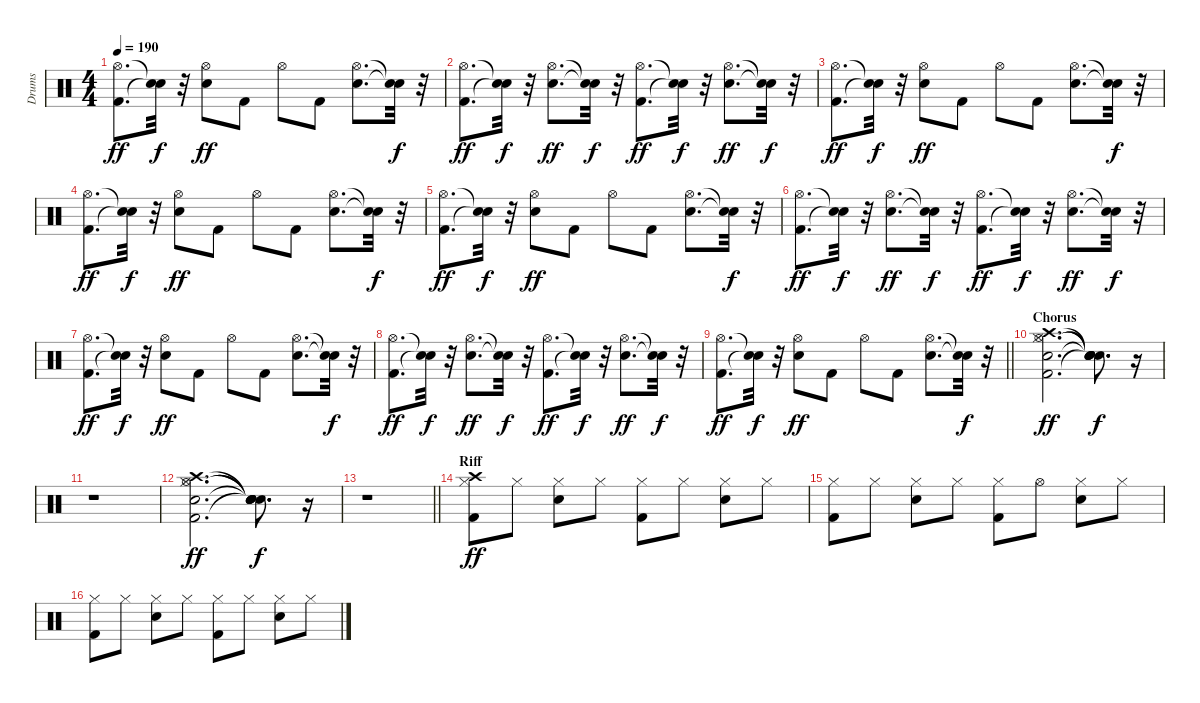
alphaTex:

\track ("Drums" "Drums") {instrument percussion}
\staff {score}
\articulation defaults
\ts (4 4)
\tempo 190
\clef neutral
\ks c
("Kick (hit) 2" "Hi-Hat (open)").8{d dy ff} ("Snare (hit)"{t} "Snare (hit)"{t}).32{dy f} r.32 ("Snare (hit) 2" "Hi-Hat (open)").8{dy ff} "Kick (hit) 2".8 "Hi-Hat (open)".8 "Kick (hit) 2".8 ("Snare (hit) 2" "Hi-Hat (open)").8{d} ("Snare (hit)"{t} "Snare (hit)"{t}).32{dy f} r.32 |
("Kick (hit) 2" "Hi-Hat (open)").8{d dy ff} ("Snare (hit)"{t} "Snare (hit)"{t}).32{dy f} r.32 ("Snare (hit) 2" "Hi-Hat (open)").8{d dy ff} ("Snare (hit)"{t} "Snare (hit)"{t}).32{dy f} r.32 ("Kick (hit) 2" "Hi-Hat (open)").8{d dy ff} ("Snare (hit)"{t} "Snare (hit)"{t}).32{dy f} r.32 ("Snare (hit) 2" "Hi-Hat (open)").8{d dy ff} ("Snare (hit)"{t} "Snare (hit)"{t}).32{dy f} r.32 |
("Kick (hit) 2" "Hi-Hat (open)").8{d dy ff} ("Snare (hit)"{t} "Snare (hit)"{t}).32{dy f} r.32 ("Snare (hit) 2" "Hi-Hat (open)").8{dy ff} "Kick (hit) 2".8 "Hi-Hat (open)".8 "Kick (hit) 2".8 ("Snare (hit) 2" "Hi-Hat (open)").8{d} ("Snare (hit)"{t} "Snare (hit)"{t}).32{dy f} r.32 |
("Kick (hit) 2" "Hi-Hat (open)").8{d dy ff} ("Snare (hit)"{t} "Snare (hit)"{t}).32{dy f} r.32 ("Snare (hit) 2" "Hi-Hat (open)").8{dy ff} "Kick (hit) 2".8 "Hi-Hat (open)".8 "Kick (hit) 2".8 ("Snare (hit) 2" "Hi-Hat (open)").8{d} ("Snare (hit)"{t} "Snare (hit)"{t}).32{dy f} r.32 |
("Kick (hit) 2" "Hi-Hat (open)").8{d dy ff} ("Snare (hit)"{t} "Snare (hit)"{t}).32{dy f} r.32 ("Snare (hit) 2" "Hi-Hat (open)").8{dy ff} "Kick (hit) 2".8 "Hi-Hat (open)".8 "Kick (hit) 2".8 ("Snare (hit) 2" "Hi-Hat (open)").8{d} ("Snare (hit)"{t} "Snare (hit)"{t}).32{dy f} r.32 |
("Kick (hit) 2" "Hi-Hat (open)").8{d dy ff} ("Snare (hit)"{t} "Snare (hit)"{t}).32{dy f} r.32 ("Snare (hit) 2" "Hi-Hat (open)").8{d dy ff} ("Snare (hit)"{t} "Snare (hit)"{t}).32{dy f} r.32 ("Kick (hit) 2" "Hi-Hat (open)").8{d dy ff} ("Snare (hit)"{t} "Snare (hit)"{t}).32{dy f} r.32 ("Snare (hit) 2" "Hi-Hat (open)").8{d dy ff} ("Snare (hit)"{t} "Snare (hit)"{t}).32{dy f} r.32 |
("Kick (hit) 2" "Hi-Hat (open)").8{d dy ff} ("Snare (hit)"{t} "Snare (hit)"{t}).32{dy f} r.32 ("Snare (hit) 2" "Hi-Hat (open)").8{dy ff} "Kick (hit) 2".8 "Hi-Hat (open)".8 "Kick (hit) 2".8 ("Snare (hit) 2" "Hi-Hat (open)").8{d} ("Snare (hit)"{t} "Snare (hit)"{t}).32{dy f} r.32 |
("Kick (hit) 2" "Hi-Hat (open)").8{d dy ff} ("Snare (hit)"{t} "Snare (hit)"{t}).32{dy f} r.32 ("Snare (hit) 2" "Hi-Hat (open)").8{d dy ff} ("Snare (hit)"{t} "Snare (hit)"{t}).32{dy f} r.32 ("Kick (hit) 2" "Hi-Hat (open)").8{d dy ff} ("Snare (hit)"{t} "Snare (hit)"{t}).32{dy f} r.32 ("Snare (hit) 2" "Hi-Hat (open)").8{d dy ff} ("Snare (hit)"{t} "Snare (hit)"{t}).32{dy f} r.32 |
\barLineRight lightlight
("Kick (hit) 2" "Hi-Hat (open)").8{d dy ff} ("Snare (hit)"{t} "Snare (hit)"{t}).32{dy f} r.32 ("Snare (hit) 2" "Hi-Hat (open)").8{dy ff} "Kick (hit) 2".8 "Hi-Hat (open)".8 "Kick (hit) 2".8 ("Snare (hit) 2" "Hi-Hat (open)").8{d} ("Snare (hit)"{t} "Snare (hit)"{t}).32{dy f} r.32 |
\section ("" "Chorus")
("Kick (hit) 2" "Snare (hit) 2" "Hi-Hat (closed)" "Hi-Hat (open)" "Crash high (hit)").2{d dy ff} ("Snare (hit)"{t} "Snare (hit)"{t} "Snare (hit)"{t} "Snare (hit)"{t} "Snare (hit)"{t}).8{d dy f} r.16 |
r.1 |
("Kick (hit) 2" "Snare (hit) 2" "Hi-Hat (closed)" "Hi-Hat (open)" "Crash high (hit)").2{d dy ff} ("Snare (hit)"{t} "Snare (hit)"{t} "Snare (hit)"{t} "Snare (hit)"{t} "Snare (hit)"{t}).8{d dy f} r.16 |
\barLineRight lightlight
r.1 |
\section ("" "Riff")
("Kick (hit) 2" "Hi-Hat (closed)" "Crash high (hit)").8{dy ff} "Hi-Hat (closed)".8 ("Snare (hit) 2" "Hi-Hat (closed)").8 "Hi-Hat (closed)".8 ("Kick (hit) 2" "Hi-Hat (closed)").8 "Hi-Hat (closed)".8 ("Snare (hit) 2" "Hi-Hat (closed)").8 "Hi-Hat (closed)".8 |
("Kick (hit) 2" "Hi-Hat (closed)").8 "Hi-Hat (closed)".8 ("Snare (hit) 2" "Hi-Hat (closed)").8 "Hi-Hat (closed)".8 ("Kick (hit) 2" "Hi-Hat (closed)").8 "Hi-Hat (open)".8 ("Snare (hit) 2" "Hi-Hat (closed)").8 "Hi-Hat (closed)".8 |
("Kick (hit) 2" "Hi-Hat (closed)").8 "Hi-Hat (closed)".8 ("Snare (hit) 2" "Hi-Hat (closed)").8 "Hi-Hat (closed)".8 ("Kick (hit) 2" "Hi-Hat (closed)").8 "Hi-Hat (closed)".8 ("Snare (hit) 2" "Hi-Hat (closed)").8 "Hi-Hat (closed)".8
